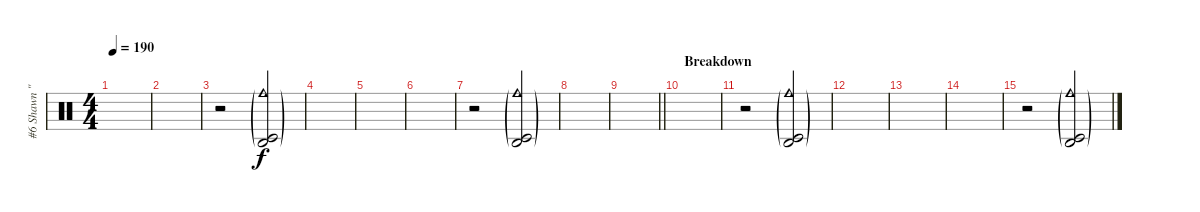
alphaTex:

\track ("#6 Shawn \"Clown\" Crahan" "#6 Shawn \"") {instrument percussion}
\staff {score}
\articulation defaults
\ts (4 4)
\tempo 190
\clef neutral
\ks c
|
|
r.2 ("Cowbell medium (hit)"{g} "Timbale low (hit)"{g} "Agogo high (hit)"{g}).2 |
|
|
|
r.2 ("Cowbell medium (hit)"{g} "Timbale low (hit)"{g} "Agogo high (hit)"{g}).2 |
|
\barLineRight lightlight
|
\section ("" "Breakdown")
|
r.2 ("Cowbell medium (hit)"{g} "Timbale low (hit)"{g} "Agogo high (hit)"{g}).2 |
|
|
|
r.2 ("Cowbell medium (hit)"{g} "Timbale low (hit)"{g} "Agogo high (hit)"{g}).2
